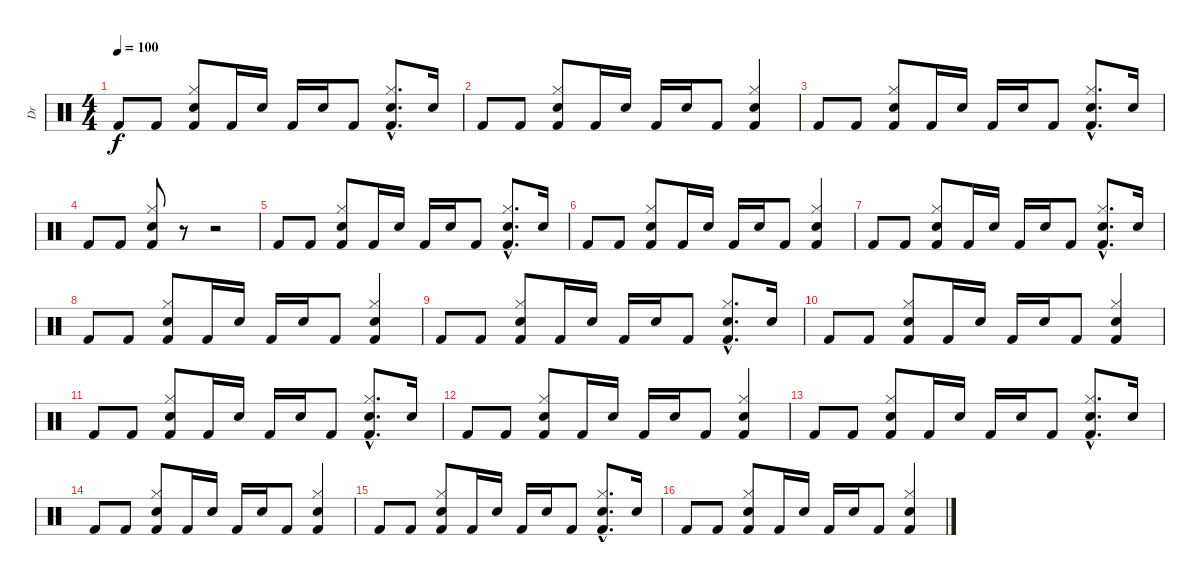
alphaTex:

\track ("Dr" "Dr") {instrument percussion}
\staff {score}
\articulation defaults
\ts (4 4)
\tempo 100
\clef neutral
\ks c "Kick (hit) 2".8{dy f} "Kick (hit) 2".8
("Hi-Hat (closed)" "Electric Snare (hit)" "Kick (hit) 2").8 "Kick (hit) 2".16 "Electric Snare (hit)".16 "Kick (hit) 2".16 "Electric Snare (hit)".16 "Kick (hit) 2".8 ("Hi-Hat (closed)"{hac} "Electric Snare (hit)"{hac} "Kick (hit) 2"{hac}).8{d} "Electric Snare (hit)".16 |
"Kick (hit) 2".8 "Kick (hit) 2".8 ("Hi-Hat (closed)" "Electric Snare (hit)" "Kick (hit) 2").8 "Kick (hit) 2".16 "Electric Snare (hit)".16 "Kick (hit) 2".16 "Electric Snare (hit)".16 "Kick (hit) 2".8 ("Hi-Hat (closed)" "Electric Snare (hit)" "Kick (hit) 2").4 |
"Kick (hit) 2".8 "Kick (hit) 2".8 ("Hi-Hat (closed)" "Electric Snare (hit)" "Kick (hit) 2").8 "Kick (hit) 2".16 "Electric Snare (hit)".16 "Kick (hit) 2".16 "Electric Snare (hit)".16 "Kick (hit) 2".8 ("Hi-Hat (closed)"{hac} "Electric Snare (hit)"{hac} "Kick (hit) 2"{hac}).8{d} "Electric Snare (hit)".16 |
"Kick (hit) 2".8 "Kick (hit) 2".8 ("Hi-Hat (closed)" "Electric Snare (hit)" "Kick (hit) 2").8 r.8 r.2 |
"Kick (hit) 2".8 "Kick (hit) 2".8 ("Hi-Hat (closed)" "Electric Snare (hit)" "Kick (hit) 2").8 "Kick (hit) 2".16 "Electric Snare (hit)".16 "Kick (hit) 2".16 "Electric Snare (hit)".16 "Kick (hit) 2".8 ("Hi-Hat (closed)"{hac} "Electric Snare (hit)"{hac} "Kick (hit) 2"{hac}).8{d} "Electric Snare (hit)".16 |
"Kick (hit) 2".8 "Kick (hit) 2".8 ("Hi-Hat (closed)" "Electric Snare (hit)" "Kick (hit) 2").8 "Kick (hit) 2".16 "Electric Snare (hit)".16 "Kick (hit) 2".16 "Electric Snare (hit)".16 "Kick (hit) 2".8 ("Hi-Hat (closed)" "Electric Snare (hit)" "Kick (hit) 2").4 |
"Kick (hit) 2".8 "Kick (hit) 2".8 ("Hi-Hat (closed)" "Electric Snare (hit)" "Kick (hit) 2").8 "Kick (hit) 2".16 "Electric Snare (hit)".16 "Kick (hit) 2".16 "Electric Snare (hit)".16 "Kick (hit) 2".8 ("Hi-Hat (closed)"{hac} "Electric Snare (hit)"{hac} "Kick (hit) 2"{hac}).8{d} "Electric Snare (hit)".16 |
"Kick (hit) 2".8 "Kick (hit) 2".8 ("Hi-Hat (closed)" "Electric Snare (hit)" "Kick (hit) 2").8 "Kick (hit) 2".16 "Electric Snare (hit)".16 "Kick (hit) 2".16 "Electric Snare (hit)".16 "Kick (hit) 2".8 ("Hi-Hat (closed)" "Electric Snare (hit)" "Kick (hit) 2").4 |
"Kick (hit) 2".8 "Kick (hit) 2".8 ("Hi-Hat (closed)" "Electric Snare (hit)" "Kick (hit) 2").8 "Kick (hit) 2".16 "Electric Snare (hit)".16 "Kick (hit) 2".16 "Electric Snare (hit)".16 "Kick (hit) 2".8 ("Hi-Hat (closed)"{hac} "Electric Snare (hit)"{hac} "Kick (hit) 2"{hac}).8{d} "Electric Snare (hit)".16 |
"Kick (hit) 2".8 "Kick (hit) 2".8 ("Hi-Hat (closed)" "Electric Snare (hit)" "Kick (hit) 2").8 "Kick (hit) 2".16 "Electric Snare (hit)".16 "Kick (hit) 2".16 "Electric Snare (hit)".16 "Kick (hit) 2".8 ("Hi-Hat (closed)" "Electric Snare (hit)" "Kick (hit) 2").4 |
"Kick (hit) 2".8 "Kick (hit) 2".8 ("Hi-Hat (closed)" "Electric Snare (hit)" "Kick (hit) 2").8 "Kick (hit) 2".16 "Electric Snare (hit)".16 "Kick (hit) 2".16 "Electric Snare (hit)".16 "Kick (hit) 2".8 ("Hi-Hat (closed)"{hac} "Electric Snare (hit)"{hac} "Kick (hit) 2"{hac}).8{d} "Electric Snare (hit)".16 |
"Kick (hit) 2".8 "Kick (hit) 2".8 ("Hi-Hat (closed)" "Electric Snare (hit)" "Kick (hit) 2").8 "Kick (hit) 2".16 "Electric Snare (hit)".16 "Kick (hit) 2".16 "Electric Snare (hit)".16 "Kick (hit) 2".8 ("Hi-Hat (closed)" "Electric Snare (hit)" "Kick (hit) 2").4 |
"Kick (hit) 2".8 "Kick (hit) 2".8 ("Hi-Hat (closed)" "Electric Snare (hit)" "Kick (hit) 2").8 "Kick (hit) 2".16 "Electric Snare (hit)".16 "Kick (hit) 2".16 "Electric Snare (hit)".16 "Kick (hit) 2".8 ("Hi-Hat (closed)"{hac} "Electric Snare (hit)"{hac} "Kick (hit) 2"{hac}).8{d} "Electric Snare (hit)".16 |
"Kick (hit) 2".8 "Kick (hit) 2".8 ("Hi-Hat (closed)" "Electric Snare (hit)" "Kick (hit) 2").8 "Kick (hit) 2".16 "Electric Snare (hit)".16 "Kick (hit) 2".16 "Electric Snare (hit)".16 "Kick (hit) 2".8 ("Hi-Hat (closed)" "Electric Snare (hit)" "Kick (hit) 2").4 |
"Kick (hit) 2".8 "Kick (hit) 2".8 ("Hi-Hat (closed)" "Electric Snare (hit)" "Kick (hit) 2").8 "Kick (hit) 2".16 "Electric Snare (hit)".16 "Kick (hit) 2".16 "Electric Snare (hit)".16 "Kick (hit) 2".8 ("Hi-Hat (closed)"{hac} "Electric Snare (hit)"{hac} "Kick (hit) 2"{hac}).8{d} "Electric Snare (hit)".16 |
"Kick (hit) 2".8 "Kick (hit) 2".8 ("Hi-Hat (closed)" "Electric Snare (hit)" "Kick (hit) 2").8 "Kick (hit) 2".16 "Electric Snare (hit)".16 "Kick (hit) 2".16 "Electric Snare (hit)".16 "Kick (hit) 2".8 ("Hi-Hat (closed)" "Electric Snare (hit)" "Kick (hit) 2").4
